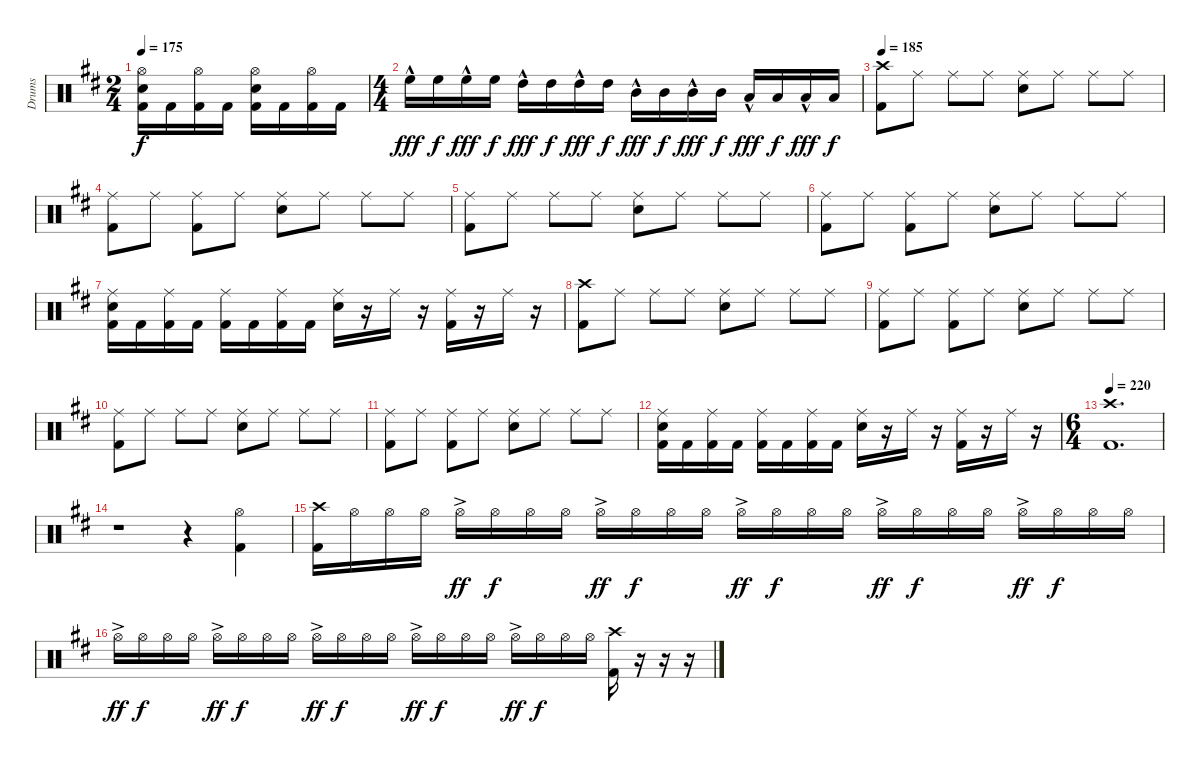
\track ("Drums" "Drums") {instrument percussion}
\staff {score}
\articulation defaults
\ts (2 4)
\tempo 175
\clef neutral
\ks bminor
("Kick (hit) 2" "Electric Snare (hit)" "Hi-Hat (open)").16{dy f} "Kick (hit) 2".16 ("Kick (hit) 2" "Hi-Hat (open)").16 "Kick (hit) 2".16 ("Kick (hit) 2" "Electric Snare (hit)" "Hi-Hat (open)").16 "Kick (hit) 2".16 ("Kick (hit) 2" "Hi-Hat (open)").16 "Kick (hit) 2".16 |
\ts (4 4)
"High Floor Tom (hit)"{hac}.16{dy fff} "High Floor Tom (hit)".16{dy f} "High Floor Tom (hit)"{hac}.16{dy fff} "High Floor Tom (hit)".16{dy f} "High Tom (hit)"{hac}.16{dy fff} "High Tom (hit)".16{dy f} "High Tom (hit)"{hac}.16{dy fff} "High Tom (hit)".16{dy f} "Mid Tom (hit)"{hac}.16{dy fff} "Mid Tom (hit)".16{dy f} "Mid Tom (hit)"{hac}.16{dy fff} "Mid Tom (hit)".16{dy f} "Low Tom (hit)"{hac}.16{dy fff} "Low Tom (hit)".16{dy f} "Low Tom (hit)"{hac}.16{dy fff} "Low Tom (hit)".16{dy f} |
\tempo 185
("Kick (hit) 2" "Crash high (hit)").8 "Ride (middle)".8 "Ride (middle)".8 "Ride (middle)".8 ("Electric Snare (hit)" "Ride (middle)").8 "Ride (middle)".8 "Ride (middle)".8 "Ride (middle)".8 |
("Kick (hit) 2" "Ride (middle)").8 "Ride (middle)".8 ("Kick (hit) 2" "Ride (middle)").8 "Ride (middle)".8 ("Electric Snare (hit)" "Ride (middle)").8 "Ride (middle)".8 "Ride (middle)".8 "Ride (middle)".8 |
("Kick (hit) 2" "Ride (middle)").8 "Ride (middle)".8 "Ride (middle)".8 "Ride (middle)".8 ("Electric Snare (hit)" "Ride (middle)").8 "Ride (middle)".8 "Ride (middle)".8 "Ride (middle)".8 |
("Kick (hit) 2" "Ride (middle)").8 "Ride (middle)".8 ("Kick (hit) 2" "Ride (middle)").8 "Ride (middle)".8 ("Electric Snare (hit)" "Ride (middle)").8 "Ride (middle)".8 "Ride (middle)".8 "Ride (middle)".8 |
("Kick (hit) 2" "Electric Snare (hit)" "Ride (middle)").16 "Kick (hit) 2".16 ("Kick (hit) 2" "Ride (middle)").16 "Kick (hit) 2".16 ("Kick (hit) 2" "Ride (middle)").16 "Kick (hit) 2".16 ("Kick (hit) 2" "Ride (middle)").16 "Kick (hit) 2".16 ("Electric Snare (hit)" "Ride (middle)").16 r.16 "Ride (middle)".16 r.16 ("Kick (hit) 2" "Ride (middle)").16 r.16 "Ride (middle)".16 r.16 |
("Kick (hit) 2" "Crash high (hit)").8 "Ride (middle)".8 "Ride (middle)".8 "Ride (middle)".8 ("Electric Snare (hit)" "Ride (middle)").8 "Ride (middle)".8 "Ride (middle)".8 "Ride (middle)".8 |
("Kick (hit) 2" "Ride (middle)").8 "Ride (middle)".8 ("Kick (hit) 2" "Ride (middle)").8 "Ride (middle)".8 ("Electric Snare (hit)" "Ride (middle)").8 "Ride (middle)".8 "Ride (middle)".8 "Ride (middle)".8 |
("Kick (hit) 2" "Ride (middle)").8 "Ride (middle)".8 "Ride (middle)".8 "Ride (middle)".8 ("Electric Snare (hit)" "Ride (middle)").8 "Ride (middle)".8 "Ride (middle)".8 "Ride (middle)".8 |
("Kick (hit) 2" "Ride (middle)").8 "Ride (middle)".8 ("Kick (hit) 2" "Ride (middle)").8 "Ride (middle)".8 ("Electric Snare (hit)" "Ride (middle)").8 "Ride (middle)".8 "Ride (middle)".8 "Ride (middle)".8 |
("Kick (hit) 2" "Electric Snare (hit)" "Ride (middle)").16 "Kick (hit) 2".16 ("Kick (hit) 2" "Ride (middle)").16 "Kick (hit) 2".16 ("Kick (hit) 2" "Ride (middle)").16 "Kick (hit) 2".16 ("Kick (hit) 2" "Ride (middle)").16 "Kick (hit) 2".16 ("Electric Snare (hit)" "Ride (middle)").16 r.16 "Ride (middle)".16 r.16 ("Kick (hit) 2" "Ride (middle)").16 r.16 "Ride (middle)".16 r.16 |
\ts (6 4)
\tempo 220
("Kick (hit) 2" "Crash high (hit)").1{d} |
r.1 r.4 ("Kick (hit) 2" "Hi-Hat (open)").4 |
("Kick (hit) 2" "Crash high (hit)").16 "Hi-Hat (open)".16 "Hi-Hat (open)".16 "Hi-Hat (open)".16 "Hi-Hat (open)"{ac}.16{dy ff} "Hi-Hat (open)".16{dy f} "Hi-Hat (open)".16 "Hi-Hat (open)".16 "Hi-Hat (open)"{ac}.16{dy ff} "Hi-Hat (open)".16{dy f} "Hi-Hat (open)".16 "Hi-Hat (open)".16 "Hi-Hat (open)"{ac}.16{dy ff} "Hi-Hat (open)".16{dy f} "Hi-Hat (open)".16 "Hi-Hat (open)".16 "Hi-Hat (open)"{ac}.16{dy ff} "Hi-Hat (open)".16{dy f} "Hi-Hat (open)".16 "Hi-Hat (open)".16 "Hi-Hat (open)"{ac}.16{dy ff} "Hi-Hat (open)".16{dy f} "Hi-Hat (open)".16 "Hi-Hat (open)".16 |
"Hi-Hat (open)"{ac}.16{dy ff} "Hi-Hat (open)".16{dy f} "Hi-Hat (open)".16 "Hi-Hat (open)".16 "Hi-Hat (open)"{ac}.16{dy ff} "Hi-Hat (open)".16{dy f} "Hi-Hat (open)".16 "Hi-Hat (open)".16 "Hi-Hat (open)"{ac}.16{dy ff} "Hi-Hat (open)".16{dy f} "Hi-Hat (open)".16 "Hi-Hat (open)".16 "Hi-Hat (open)"{ac}.16{dy ff} "Hi-Hat (open)".16{dy f} "Hi-Hat (open)".16 "Hi-Hat (open)".16 "Hi-Hat (open)"{ac}.16{dy ff} "Hi-Hat (open)".16{dy f} "Hi-Hat (open)".16 "Hi-Hat (open)".16 ("Kick (hit) 2" "Crash high (hit)").16 r.16 r.16 r.16
